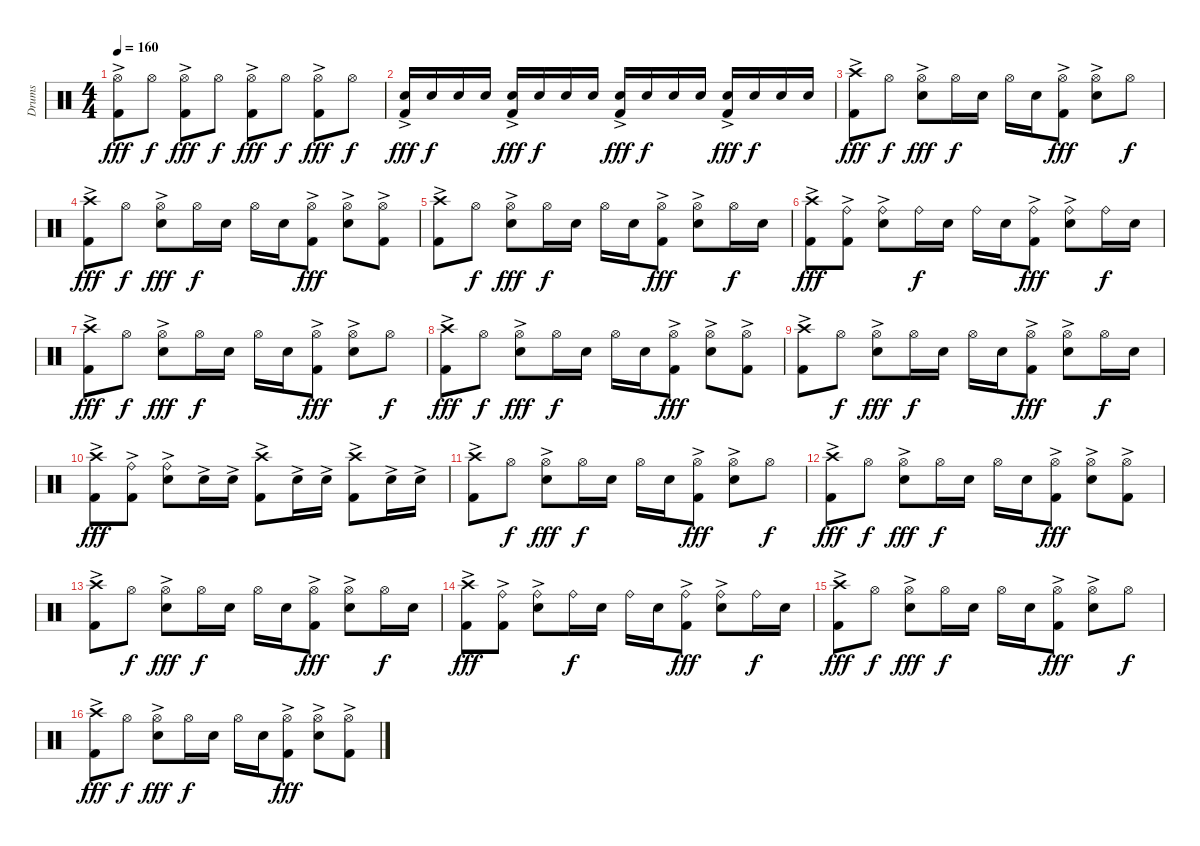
\track ("Drums" "Drums") {instrument percussion}
\staff {score}
\articulation defaults
\ts (4 4)
\tempo 160
\clef neutral
\ks c
("Hi-Hat (open)" "Kick (hit) 2"{ac}).8{dy fff} "Hi-Hat (open)".8{dy f} ("Hi-Hat (open)" "Kick (hit) 2"{ac}).8{dy fff} "Hi-Hat (open)".8{dy f} ("Hi-Hat (open)" "Kick (hit) 2"{ac}).8{dy fff} "Hi-Hat (open)".8{dy f} ("Hi-Hat (open)" "Kick (hit) 2"{ac}).8{dy fff} "Hi-Hat (open)".8{dy f} |
("Snare (hit) 2"{ac} "Kick (hit) 2"{ac}).16{dy fff} "Snare (hit) 2".16{dy f} "Snare (hit) 2".16 "Snare (hit) 2".16 ("Snare (hit) 2"{ac} "Kick (hit) 2"{ac}).16{dy fff} "Snare (hit) 2".16{dy f} "Snare (hit) 2".16 "Snare (hit) 2".16 ("Snare (hit) 2"{ac} "Kick (hit) 2"{ac}).16{dy fff} "Snare (hit) 2".16{dy f} "Snare (hit) 2".16 "Snare (hit) 2".16 ("Snare (hit) 2"{ac} "Kick (hit) 2"{ac}).16{dy fff} "Snare (hit) 2".16{dy f} "Snare (hit) 2".16 "Snare (hit) 2".16 |
("Crash high (hit)" "Kick (hit) 2"{ac}).8{dy fff} "Hi-Hat (open)".8{dy f} ("Hi-Hat (open)" "Snare (hit) 2"{ac}).8{dy fff} "Hi-Hat (open)".16{dy f} "Snare (hit) 2".16 "Hi-Hat (open)".16 "Snare (hit) 2".16 ("Hi-Hat (open)" "Kick (hit) 2"{ac}).8{dy fff} ("Hi-Hat (open)" "Snare (hit) 2"{ac}).8 "Hi-Hat (open)".8{dy f} |
("Crash high (hit)" "Kick (hit) 2"{ac}).8{dy fff} "Hi-Hat (open)".8{dy f} ("Hi-Hat (open)" "Snare (hit) 2"{ac}).8{dy fff} "Hi-Hat (open)".16{dy f} "Snare (hit) 2".16 "Hi-Hat (open)".16 "Snare (hit) 2".16 ("Hi-Hat (open)" "Kick (hit) 2"{ac}).8{dy fff} ("Hi-Hat (open)" "Snare (hit) 2"{ac}).8 ("Hi-Hat (open)" "Kick (hit) 2"{ac}).8 |
("Crash high (hit)" "Kick (hit) 2"{ac}).8 "Hi-Hat (open)".8{dy f} ("Hi-Hat (open)" "Snare (hit) 2"{ac}).8{dy fff} "Hi-Hat (open)".16{dy f} "Snare (hit) 2".16 "Hi-Hat (open)".16 "Snare (hit) 2".16 ("Hi-Hat (open)" "Kick (hit) 2"{ac}).8{dy fff} ("Hi-Hat (open)" "Snare (hit) 2"{ac}).8 "Hi-Hat (open)".16{dy f} "Snare (hit) 2".16 |
("Crash high (hit)" "Kick (hit) 2"{ac}).8{dy fff} ("Ride (bell)" "Kick (hit) 2"{ac}).8 ("Ride (bell)" "Snare (hit) 2"{ac}).8 "Ride (bell)".16{dy f} "Snare (hit) 2".16 "Ride (bell)".16 "Snare (hit) 2".16 ("Ride (bell)" "Kick (hit) 2"{ac}).8{dy fff} ("Ride (bell)" "Snare (hit) 2"{ac}).8 "Ride (bell)".16{dy f} "Snare (hit) 2".16 |
("Crash high (hit)" "Kick (hit) 2"{ac}).8{dy fff} "Hi-Hat (open)".8{dy f} ("Hi-Hat (open)" "Snare (hit) 2"{ac}).8{dy fff} "Hi-Hat (open)".16{dy f} "Snare (hit) 2".16 "Hi-Hat (open)".16 "Snare (hit) 2".16 ("Hi-Hat (open)" "Kick (hit) 2"{ac}).8{dy fff} ("Hi-Hat (open)" "Snare (hit) 2"{ac}).8 "Hi-Hat (open)".8{dy f} |
("Crash high (hit)" "Kick (hit) 2"{ac}).8{dy fff} "Hi-Hat (open)".8{dy f} ("Hi-Hat (open)" "Snare (hit) 2"{ac}).8{dy fff} "Hi-Hat (open)".16{dy f} "Snare (hit) 2".16 "Hi-Hat (open)".16 "Snare (hit) 2".16 ("Hi-Hat (open)" "Kick (hit) 2"{ac}).8{dy fff} ("Hi-Hat (open)" "Snare (hit) 2"{ac}).8 ("Hi-Hat (open)" "Kick (hit) 2"{ac}).8 |
("Crash high (hit)" "Kick (hit) 2"{ac}).8 "Hi-Hat (open)".8{dy f} ("Hi-Hat (open)" "Snare (hit) 2"{ac}).8{dy fff} "Hi-Hat (open)".16{dy f} "Snare (hit) 2".16 "Hi-Hat (open)".16 "Snare (hit) 2".16 ("Hi-Hat (open)" "Kick (hit) 2"{ac}).8{dy fff} ("Hi-Hat (open)" "Snare (hit) 2"{ac}).8 "Hi-Hat (open)".16{dy f} "Snare (hit) 2".16 |
("Crash high (hit)" "Kick (hit) 2"{ac}).8{dy fff} ("Ride (bell)" "Kick (hit) 2"{ac}).8 ("Ride (bell)" "Snare (hit) 2"{ac}).8 "Snare (hit) 2"{ac}.16 "Snare (hit) 2"{ac}.16 ("Crash high (hit)" "Kick (hit) 2"{ac}).8 "Snare (hit) 2"{ac}.16 "Snare (hit) 2"{ac}.16 ("Crash high (hit)" "Kick (hit) 2"{ac}).8 "Snare (hit) 2"{ac}.16 "Snare (hit) 2"{ac}.16 |
("Crash high (hit)" "Kick (hit) 2"{ac}).8 "Hi-Hat (open)".8{dy f} ("Hi-Hat (open)" "Snare (hit) 2"{ac}).8{dy fff} "Hi-Hat (open)".16{dy f} "Snare (hit) 2".16 "Hi-Hat (open)".16 "Snare (hit) 2".16 ("Hi-Hat (open)" "Kick (hit) 2"{ac}).8{dy fff} ("Hi-Hat (open)" "Snare (hit) 2"{ac}).8 "Hi-Hat (open)".8{dy f} |
("Crash high (hit)" "Kick (hit) 2"{ac}).8{dy fff} "Hi-Hat (open)".8{dy f} ("Hi-Hat (open)" "Snare (hit) 2"{ac}).8{dy fff} "Hi-Hat (open)".16{dy f} "Snare (hit) 2".16 "Hi-Hat (open)".16 "Snare (hit) 2".16 ("Hi-Hat (open)" "Kick (hit) 2"{ac}).8{dy fff} ("Hi-Hat (open)" "Snare (hit) 2"{ac}).8 ("Hi-Hat (open)" "Kick (hit) 2"{ac}).8 |
("Crash high (hit)" "Kick (hit) 2"{ac}).8 "Hi-Hat (open)".8{dy f} ("Hi-Hat (open)" "Snare (hit) 2"{ac}).8{dy fff} "Hi-Hat (open)".16{dy f} "Snare (hit) 2".16 "Hi-Hat (open)".16 "Snare (hit) 2".16 ("Hi-Hat (open)" "Kick (hit) 2"{ac}).8{dy fff} ("Hi-Hat (open)" "Snare (hit) 2"{ac}).8 "Hi-Hat (open)".16{dy f} "Snare (hit) 2".16 |
("Crash high (hit)" "Kick (hit) 2"{ac}).8{dy fff} ("Ride (bell)" "Kick (hit) 2"{ac}).8 ("Ride (bell)" "Snare (hit) 2"{ac}).8 "Ride (bell)".16{dy f} "Snare (hit) 2".16 "Ride (bell)".16 "Snare (hit) 2".16 ("Ride (bell)" "Kick (hit) 2"{ac}).8{dy fff} ("Ride (bell)" "Snare (hit) 2"{ac}).8 "Ride (bell)".16{dy f} "Snare (hit) 2".16 |
("Crash high (hit)" "Kick (hit) 2"{ac}).8{dy fff} "Hi-Hat (open)".8{dy f} ("Hi-Hat (open)" "Snare (hit) 2"{ac}).8{dy fff} "Hi-Hat (open)".16{dy f} "Snare (hit) 2".16 "Hi-Hat (open)".16 "Snare (hit) 2".16 ("Hi-Hat (open)" "Kick (hit) 2"{ac}).8{dy fff} ("Hi-Hat (open)" "Snare (hit) 2"{ac}).8 "Hi-Hat (open)".8{dy f} |
("Crash high (hit)" "Kick (hit) 2"{ac}).8{dy fff} "Hi-Hat (open)".8{dy f} ("Hi-Hat (open)" "Snare (hit) 2"{ac}).8{dy fff} "Hi-Hat (open)".16{dy f} "Snare (hit) 2".16 "Hi-Hat (open)".16 "Snare (hit) 2".16 ("Hi-Hat (open)" "Kick (hit) 2"{ac}).8{dy fff} ("Hi-Hat (open)" "Snare (hit) 2"{ac}).8 ("Hi-Hat (open)" "Kick (hit) 2"{ac}).8
